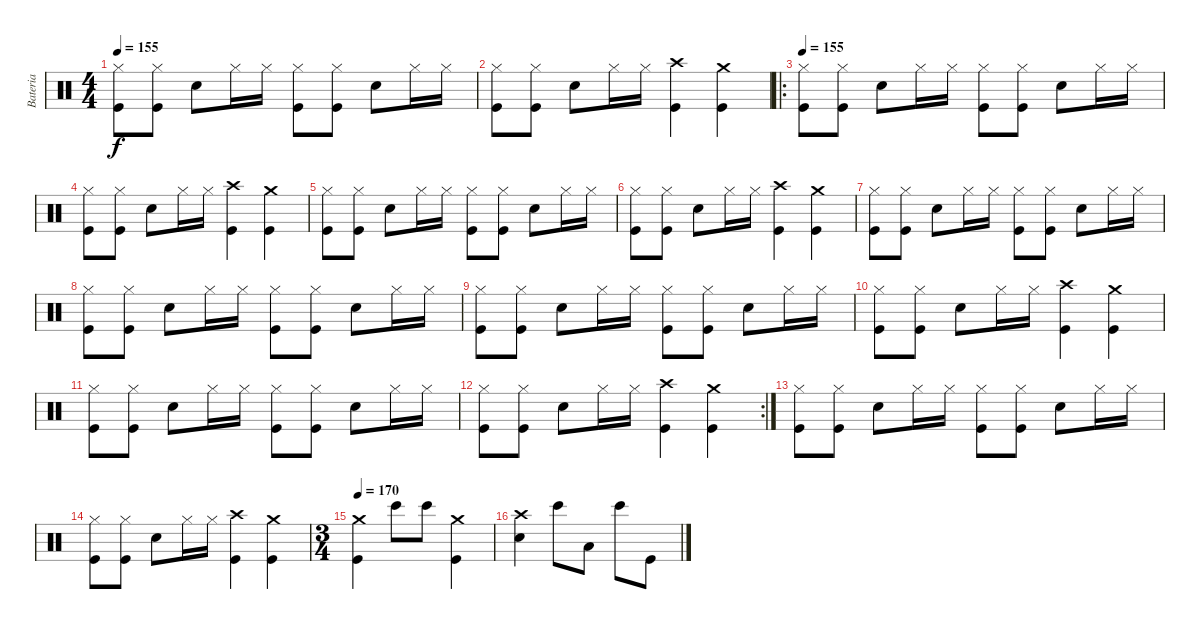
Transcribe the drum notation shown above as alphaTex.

\track ("Bateria" "Bateria") {instrument percussion}
\staff {score}
\articulation defaults
\ts (4 4)
\tempo 155
\clef neutral
\ks c
("Hi-Hat (closed)" "Kick (hit)").8{dy f} ("Hi-Hat (closed)" "Kick (hit)").8 "Snare (hit) 2".8 "Hi-Hat (closed)".16 "Hi-Hat (closed)".16 ("Hi-Hat (closed)" "Kick (hit)").8 ("Hi-Hat (closed)" "Kick (hit)").8 "Snare (hit) 2".8 "Hi-Hat (closed)".16 "Hi-Hat (closed)".16 |
("Hi-Hat (closed)" "Kick (hit)").8 ("Hi-Hat (closed)" "Kick (hit)").8 "Snare (hit) 2".8 "Hi-Hat (closed)".16 "Hi-Hat (closed)".16 ("Crash high (hit)" "Kick (hit)").4 ("Crash medium (hit)" "Kick (hit)").4 |
\ro
\tempo 155
("Hi-Hat (closed)" "Kick (hit)").8 ("Hi-Hat (closed)" "Kick (hit)").8 "Snare (hit) 2".8 "Hi-Hat (closed)".16 "Hi-Hat (closed)".16 ("Hi-Hat (closed)" "Kick (hit)").8 ("Hi-Hat (closed)" "Kick (hit)").8 "Snare (hit) 2".8 "Hi-Hat (closed)".16 "Hi-Hat (closed)".16 |
("Hi-Hat (closed)" "Kick (hit)").8 ("Hi-Hat (closed)" "Kick (hit)").8 "Snare (hit) 2".8 "Hi-Hat (closed)".16 "Hi-Hat (closed)".16 ("Crash high (hit)" "Kick (hit)").4 ("Crash medium (hit)" "Kick (hit)").4 |
("Hi-Hat (closed)" "Kick (hit)").8 ("Hi-Hat (closed)" "Kick (hit)").8 "Snare (hit) 2".8 "Hi-Hat (closed)".16 "Hi-Hat (closed)".16 ("Hi-Hat (closed)" "Kick (hit)").8 ("Hi-Hat (closed)" "Kick (hit)").8 "Snare (hit) 2".8 "Hi-Hat (closed)".16 "Hi-Hat (closed)".16 |
("Hi-Hat (closed)" "Kick (hit)").8 ("Hi-Hat (closed)" "Kick (hit)").8 "Snare (hit) 2".8 "Hi-Hat (closed)".16 "Hi-Hat (closed)".16 ("Crash high (hit)" "Kick (hit)").4 ("Crash medium (hit)" "Kick (hit)").4 |
("Hi-Hat (closed)" "Kick (hit)").8 ("Hi-Hat (closed)" "Kick (hit)").8 "Snare (hit) 2".8 "Hi-Hat (closed)".16 "Hi-Hat (closed)".16 ("Hi-Hat (closed)" "Kick (hit)").8 ("Hi-Hat (closed)" "Kick (hit)").8 "Snare (hit) 2".8 "Hi-Hat (closed)".16 "Hi-Hat (closed)".16 |
("Hi-Hat (closed)" "Kick (hit)").8 ("Hi-Hat (closed)" "Kick (hit)").8 "Snare (hit) 2".8 "Hi-Hat (closed)".16 "Hi-Hat (closed)".16 ("Hi-Hat (closed)" "Kick (hit)").8 ("Hi-Hat (closed)" "Kick (hit)").8 "Snare (hit) 2".8 "Hi-Hat (closed)".16 "Hi-Hat (closed)".16 |
("Hi-Hat (closed)" "Kick (hit)").8 ("Hi-Hat (closed)" "Kick (hit)").8 "Snare (hit) 2".8 "Hi-Hat (closed)".16 "Hi-Hat (closed)".16 ("Hi-Hat (closed)" "Kick (hit)").8 ("Hi-Hat (closed)" "Kick (hit)").8 "Snare (hit) 2".8 "Hi-Hat (closed)".16 "Hi-Hat (closed)".16 |
("Hi-Hat (closed)" "Kick (hit)").8 ("Hi-Hat (closed)" "Kick (hit)").8 "Snare (hit) 2".8 "Hi-Hat (closed)".16 "Hi-Hat (closed)".16 ("Crash high (hit)" "Kick (hit)").4 ("Crash medium (hit)" "Kick (hit)").4 |
("Hi-Hat (closed)" "Kick (hit)").8 ("Hi-Hat (closed)" "Kick (hit)").8 "Snare (hit) 2".8 "Hi-Hat (closed)".16 "Hi-Hat (closed)".16 ("Hi-Hat (closed)" "Kick (hit)").8 ("Hi-Hat (closed)" "Kick (hit)").8 "Snare (hit) 2".8 "Hi-Hat (closed)".16 "Hi-Hat (closed)".16 |
\rc 2
("Hi-Hat (closed)" "Kick (hit)").8 ("Hi-Hat (closed)" "Kick (hit)").8 "Snare (hit) 2".8 "Hi-Hat (closed)".16 "Hi-Hat (closed)".16 ("Crash high (hit)" "Kick (hit)").4 ("Crash medium (hit)" "Kick (hit)").4 |
("Hi-Hat (closed)" "Kick (hit)").8 ("Hi-Hat (closed)" "Kick (hit)").8 "Snare (hit) 2".8 "Hi-Hat (closed)".16 "Hi-Hat (closed)".16 ("Hi-Hat (closed)" "Kick (hit)").8 ("Hi-Hat (closed)" "Kick (hit)").8 "Snare (hit) 2".8 "Hi-Hat (closed)".16 "Hi-Hat (closed)".16 |
("Hi-Hat (closed)" "Kick (hit)").8 ("Hi-Hat (closed)" "Kick (hit)").8 "Snare (hit) 2".8 "Hi-Hat (closed)".16 "Hi-Hat (closed)".16 ("Crash high (hit)" "Kick (hit)").4 ("Crash medium (hit)" "Kick (hit)").4 |
\ts (3 4)
\tempo 170
("Crash medium (hit)" "Kick (hit)").4 "Bongo High (hit)".8 "Bongo High (hit)".8 ("Crash medium (hit)" "Kick (hit)").4 |
("Crash high (hit)" "Snare (hit) 2").4 "Bongo High (hit)".8 "Low Tom (hit)".8 "Bongo High (hit)".8 "Kick (hit)".8
